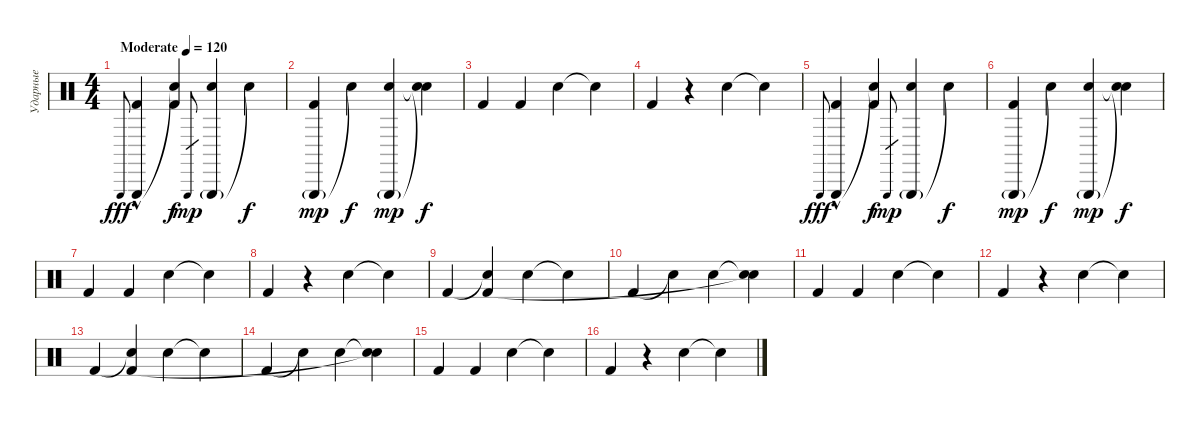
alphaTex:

\track ("Ударные" "Ударные") {instrument percussion}
\staff {score}
\articulation defaults
\ts (4 4)
\tempo (120 "Moderate")
\clef neutral
\ks c "Triangle (hit)".8{gr onbeat dy fff}
("Triangle (hit)"{hac} "Kick (hit) 2").4{volume 13} ("Snare (hit)"{t} "Kick (hit) 2").4{dy f} "Triangle (hit)".8{gr dy mp} ("Triangle (hit)"{g} "Electric Snare (hit)").4 "Snare (hit)"{t}.4{dy f} |
("Triangle (hit)"{g} "Kick (hit) 2").4{dy mp} "Snare (hit)"{t}.4{dy f} ("Triangle (hit)"{g} "Electric Snare (hit)").4{dy mp} ("Snare (hit)"{t} "Snare (hit)"{t}).4{dy f} |
"Kick (hit) 2".4 "Kick (hit) 2".4 "Electric Snare (hit)".4 "Snare (hit)"{t}.4 |
"Kick (hit) 2".4 r.4 "Electric Snare (hit)".4 "Snare (hit)"{t}.4 |
"Triangle (hit)".8{gr onbeat dy fff} ("Triangle (hit)"{hac} "Kick (hit) 2").4{volume 13} ("Snare (hit)"{t} "Kick (hit) 2").4{dy f} "Triangle (hit)".8{gr dy mp} ("Triangle (hit)"{g} "Electric Snare (hit)").4 "Snare (hit)"{t}.4{dy f} |
("Triangle (hit)"{g} "Kick (hit) 2").4{dy mp} "Snare (hit)"{t}.4{dy f} ("Triangle (hit)"{g} "Electric Snare (hit)").4{dy mp} ("Snare (hit)"{t} "Snare (hit)"{t}).4{dy f} |
"Kick (hit) 2".4 "Kick (hit) 2".4 "Electric Snare (hit)".4 "Snare (hit)"{t}.4 |
"Kick (hit) 2".4 r.4 "Electric Snare (hit)".4 "Snare (hit)"{t}.4 |
"Kick (hit) 2".4 ("Snare (hit)"{t} "Kick (hit) 2").4 "Electric Snare (hit)".4 "Snare (hit)"{t}.4 |
"Kick (hit) 2".4 "Snare (hit)"{t}.4 "Electric Snare (hit)".4 ("Snare (hit)"{t} "Snare (hit)"{t}).4 |
"Kick (hit) 2".4 "Kick (hit) 2".4 "Electric Snare (hit)".4 "Snare (hit)"{t}.4 |
"Kick (hit) 2".4 r.4 "Electric Snare (hit)".4 "Snare (hit)"{t}.4 |
"Kick (hit) 2".4 ("Snare (hit)"{t} "Kick (hit) 2").4 "Electric Snare (hit)".4 "Snare (hit)"{t}.4 |
"Kick (hit) 2".4 "Snare (hit)"{t}.4 "Electric Snare (hit)".4 ("Snare (hit)"{t} "Snare (hit)"{t}).4 |
"Kick (hit) 2".4 "Kick (hit) 2".4 "Electric Snare (hit)".4 "Snare (hit)"{t}.4 |
"Kick (hit) 2".4 r.4 "Electric Snare (hit)".4 "Snare (hit)"{t}.4
